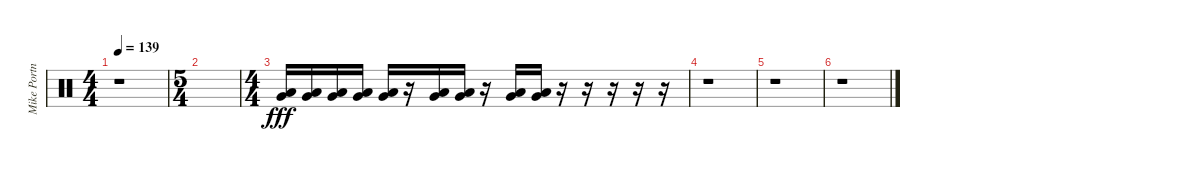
\track ("Mike Portnoy" "Mike Portn") {instrument percussion}
\staff {score}
\articulation defaults
\ts (4 4)
\tempo 139
\clef neutral
\ks c
r.1{dy fff} |
\ts (5 4)
|
\ts (4 4)
("Very Low Tom (hit)" "Low Floor Tom (hit)").16{volume 7 balance 16} ("Very Low Tom (hit)" "Low Floor Tom (hit)").16 ("Very Low Tom (hit)" "Low Floor Tom (hit)").16 ("Very Low Tom (hit)" "Low Floor Tom (hit)").16 ("Very Low Tom (hit)" "Low Floor Tom (hit)").16 r.16 ("Very Low Tom (hit)" "Low Floor Tom (hit)").16 ("Very Low Tom (hit)" "Low Floor Tom (hit)").16 r.16 ("Very Low Tom (hit)" "Low Floor Tom (hit)").16 ("Very Low Tom (hit)" "Low Floor Tom (hit)").16 r.16 r.16 r.16 r.16 r.16 |
r.1 |
r.1 |
r.1
